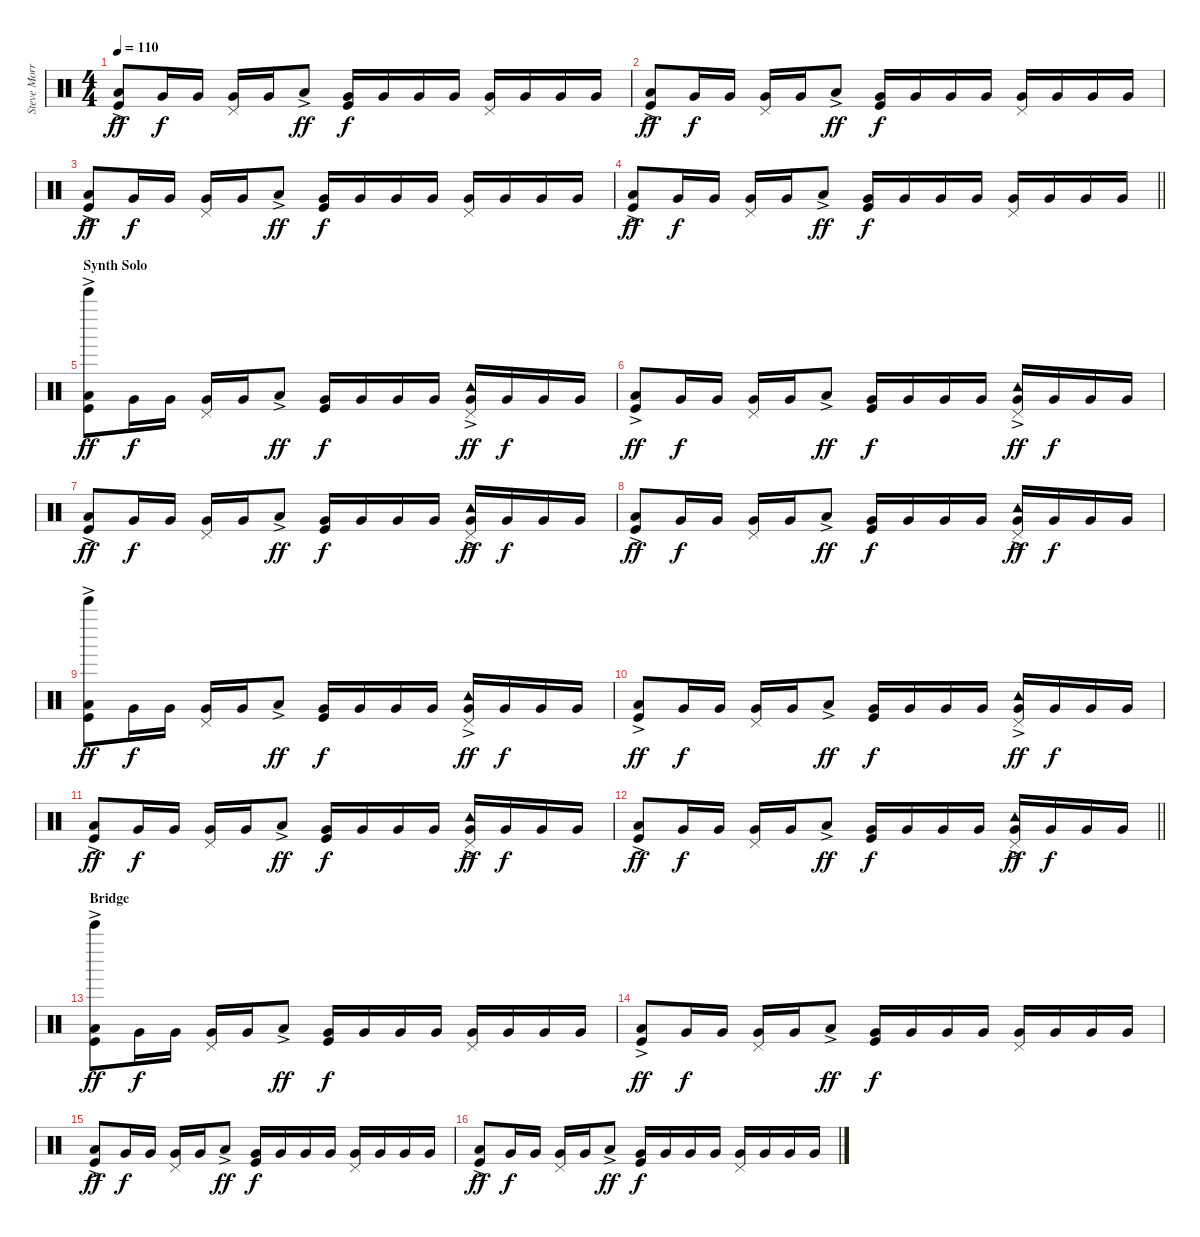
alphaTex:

\track ("Steve Morris Drums" "Steve Morr") {instrument percussion}
\staff {score}
\articulation defaults
\ts (4 4)
\tempo 110
\clef neutral
\ks c
("Low Tom (hit)"{ac} "Kick (hit)").8{dy ff} "Very Low Tom (hit)".16{dy f} "Very Low Tom (hit)".16 ("Pedal Hi-Hat (hit)" "Very Low Tom (hit)").16 "Very Low Tom (hit)".16 "Low Tom (hit)"{ac}.8{dy ff} ("Very Low Tom (hit)" "Kick (hit)").16{dy f} "Very Low Tom (hit)".16 "Very Low Tom (hit)".16 "Very Low Tom (hit)".16 ("Pedal Hi-Hat (hit)" "Very Low Tom (hit)").16 "Very Low Tom (hit)".16 "Very Low Tom (hit)".16 "Very Low Tom (hit)".16 |
("Low Tom (hit)"{ac} "Kick (hit)").8{dy ff} "Very Low Tom (hit)".16{dy f} "Very Low Tom (hit)".16 ("Pedal Hi-Hat (hit)" "Very Low Tom (hit)").16 "Very Low Tom (hit)".16 "Low Tom (hit)"{ac}.8{dy ff} ("Very Low Tom (hit)" "Kick (hit)").16{dy f} "Very Low Tom (hit)".16 "Very Low Tom (hit)".16 "Very Low Tom (hit)".16 ("Pedal Hi-Hat (hit)" "Very Low Tom (hit)").16 "Very Low Tom (hit)".16 "Very Low Tom (hit)".16 "Very Low Tom (hit)".16 |
("Low Tom (hit)"{ac} "Kick (hit)").8{dy ff} "Very Low Tom (hit)".16{dy f} "Very Low Tom (hit)".16 ("Pedal Hi-Hat (hit)" "Very Low Tom (hit)").16 "Very Low Tom (hit)".16 "Low Tom (hit)"{ac}.8{dy ff} ("Very Low Tom (hit)" "Kick (hit)").16{dy f} "Very Low Tom (hit)".16 "Very Low Tom (hit)".16 "Very Low Tom (hit)".16 ("Pedal Hi-Hat (hit)" "Very Low Tom (hit)").16 "Very Low Tom (hit)".16 "Very Low Tom (hit)".16 "Very Low Tom (hit)".16 |
\barLineRight lightlight
("Low Tom (hit)"{ac} "Kick (hit)").8{dy ff} "Very Low Tom (hit)".16{dy f} "Very Low Tom (hit)".16 ("Pedal Hi-Hat (hit)" "Very Low Tom (hit)").16 "Very Low Tom (hit)".16 "Low Tom (hit)"{ac}.8{dy ff} ("Very Low Tom (hit)" "Kick (hit)").16{dy f} "Very Low Tom (hit)".16 "Very Low Tom (hit)".16 "Very Low Tom (hit)".16 ("Pedal Hi-Hat (hit)" "Very Low Tom (hit)").16 "Very Low Tom (hit)".16 "Very Low Tom (hit)".16 "Very Low Tom (hit)".16 |
\section ("" "Synth Solo")
("Bell Tree (hit)" "Low Tom (hit)"{ac} "Kick (hit)").8{dy ff} "Very Low Tom (hit)".16{dy f} "Very Low Tom (hit)".16 ("Pedal Hi-Hat (hit)" "Very Low Tom (hit)").16 "Very Low Tom (hit)".16 "Low Tom (hit)"{ac}.8{dy ff} ("Very Low Tom (hit)" "Kick (hit)").16{dy f} "Very Low Tom (hit)".16 "Very Low Tom (hit)".16 "Very Low Tom (hit)".16 ("Pedal Hi-Hat (hit)" "Tambourine (hit)"{ac} "Very Low Tom (hit)").16{dy ff} "Very Low Tom (hit)".16{dy f} "Very Low Tom (hit)".16 "Very Low Tom (hit)".16 |
("Low Tom (hit)"{ac} "Kick (hit)").8{dy ff} "Very Low Tom (hit)".16{dy f} "Very Low Tom (hit)".16 ("Pedal Hi-Hat (hit)" "Very Low Tom (hit)").16 "Very Low Tom (hit)".16 "Low Tom (hit)"{ac}.8{dy ff} ("Very Low Tom (hit)" "Kick (hit)").16{dy f} "Very Low Tom (hit)".16 "Very Low Tom (hit)".16 "Very Low Tom (hit)".16 ("Pedal Hi-Hat (hit)" "Tambourine (hit)"{ac} "Very Low Tom (hit)").16{dy ff} "Very Low Tom (hit)".16{dy f} "Very Low Tom (hit)".16 "Very Low Tom (hit)".16 |
("Low Tom (hit)"{ac} "Kick (hit)").8{dy ff} "Very Low Tom (hit)".16{dy f} "Very Low Tom (hit)".16 ("Pedal Hi-Hat (hit)" "Very Low Tom (hit)").16 "Very Low Tom (hit)".16 "Low Tom (hit)"{ac}.8{dy ff} ("Very Low Tom (hit)" "Kick (hit)").16{dy f} "Very Low Tom (hit)".16 "Very Low Tom (hit)".16 "Very Low Tom (hit)".16 ("Pedal Hi-Hat (hit)" "Tambourine (hit)"{ac} "Very Low Tom (hit)").16{dy ff} "Very Low Tom (hit)".16{dy f} "Very Low Tom (hit)".16 "Very Low Tom (hit)".16 |
("Low Tom (hit)"{ac} "Kick (hit)").8{dy ff} "Very Low Tom (hit)".16{dy f} "Very Low Tom (hit)".16 ("Pedal Hi-Hat (hit)" "Very Low Tom (hit)").16 "Very Low Tom (hit)".16 "Low Tom (hit)"{ac}.8{dy ff} ("Very Low Tom (hit)" "Kick (hit)").16{dy f} "Very Low Tom (hit)".16 "Very Low Tom (hit)".16 "Very Low Tom (hit)".16 ("Pedal Hi-Hat (hit)" "Tambourine (hit)"{ac} "Very Low Tom (hit)").16{dy ff} "Very Low Tom (hit)".16{dy f} "Very Low Tom (hit)".16 "Very Low Tom (hit)".16 |
("Bell Tree (hit)" "Low Tom (hit)"{ac} "Kick (hit)").8{dy ff} "Very Low Tom (hit)".16{dy f} "Very Low Tom (hit)".16 ("Pedal Hi-Hat (hit)" "Very Low Tom (hit)").16 "Very Low Tom (hit)".16 "Low Tom (hit)"{ac}.8{dy ff} ("Very Low Tom (hit)" "Kick (hit)").16{dy f} "Very Low Tom (hit)".16 "Very Low Tom (hit)".16 "Very Low Tom (hit)".16 ("Pedal Hi-Hat (hit)" "Tambourine (hit)"{ac} "Very Low Tom (hit)").16{dy ff} "Very Low Tom (hit)".16{dy f} "Very Low Tom (hit)".16 "Very Low Tom (hit)".16 |
("Low Tom (hit)"{ac} "Kick (hit)").8{dy ff} "Very Low Tom (hit)".16{dy f} "Very Low Tom (hit)".16 ("Pedal Hi-Hat (hit)" "Very Low Tom (hit)").16 "Very Low Tom (hit)".16 "Low Tom (hit)"{ac}.8{dy ff} ("Very Low Tom (hit)" "Kick (hit)").16{dy f} "Very Low Tom (hit)".16 "Very Low Tom (hit)".16 "Very Low Tom (hit)".16 ("Pedal Hi-Hat (hit)" "Tambourine (hit)"{ac} "Very Low Tom (hit)").16{dy ff} "Very Low Tom (hit)".16{dy f} "Very Low Tom (hit)".16 "Very Low Tom (hit)".16 |
("Low Tom (hit)"{ac} "Kick (hit)").8{dy ff} "Very Low Tom (hit)".16{dy f} "Very Low Tom (hit)".16 ("Pedal Hi-Hat (hit)" "Very Low Tom (hit)").16 "Very Low Tom (hit)".16 "Low Tom (hit)"{ac}.8{dy ff} ("Very Low Tom (hit)" "Kick (hit)").16{dy f} "Very Low Tom (hit)".16 "Very Low Tom (hit)".16 "Very Low Tom (hit)".16 ("Pedal Hi-Hat (hit)" "Tambourine (hit)"{ac} "Very Low Tom (hit)").16{dy ff} "Very Low Tom (hit)".16{dy f} "Very Low Tom (hit)".16 "Very Low Tom (hit)".16 |
\barLineRight lightlight
("Low Tom (hit)"{ac} "Kick (hit)").8{dy ff} "Very Low Tom (hit)".16{dy f} "Very Low Tom (hit)".16 ("Pedal Hi-Hat (hit)" "Very Low Tom (hit)").16 "Very Low Tom (hit)".16 "Low Tom (hit)"{ac}.8{dy ff} ("Very Low Tom (hit)" "Kick (hit)").16{dy f} "Very Low Tom (hit)".16 "Very Low Tom (hit)".16 "Very Low Tom (hit)".16 ("Pedal Hi-Hat (hit)" "Tambourine (hit)"{ac} "Very Low Tom (hit)").16{dy ff} "Very Low Tom (hit)".16{dy f} "Very Low Tom (hit)".16 "Very Low Tom (hit)".16 |
\section ("" "Bridge")
("Bell Tree (hit)" "Low Tom (hit)"{ac} "Kick (hit)").8{dy ff} "Very Low Tom (hit)".16{dy f} "Very Low Tom (hit)".16 ("Pedal Hi-Hat (hit)" "Very Low Tom (hit)").16 "Very Low Tom (hit)".16 "Low Tom (hit)"{ac}.8{dy ff} ("Very Low Tom (hit)" "Kick (hit)").16{dy f} "Very Low Tom (hit)".16 "Very Low Tom (hit)".16 "Very Low Tom (hit)".16 ("Pedal Hi-Hat (hit)" "Very Low Tom (hit)").16 "Very Low Tom (hit)".16 "Very Low Tom (hit)".16 "Very Low Tom (hit)".16 |
("Low Tom (hit)"{ac} "Kick (hit)").8{dy ff} "Very Low Tom (hit)".16{dy f} "Very Low Tom (hit)".16 ("Pedal Hi-Hat (hit)" "Very Low Tom (hit)").16 "Very Low Tom (hit)".16 "Low Tom (hit)"{ac}.8{dy ff} ("Very Low Tom (hit)" "Kick (hit)").16{dy f} "Very Low Tom (hit)".16 "Very Low Tom (hit)".16 "Very Low Tom (hit)".16 ("Pedal Hi-Hat (hit)" "Very Low Tom (hit)").16 "Very Low Tom (hit)".16 "Very Low Tom (hit)".16 "Very Low Tom (hit)".16 |
("Low Tom (hit)"{ac} "Kick (hit)").8{dy ff} "Very Low Tom (hit)".16{dy f} "Very Low Tom (hit)".16 ("Pedal Hi-Hat (hit)" "Very Low Tom (hit)").16 "Very Low Tom (hit)".16 "Low Tom (hit)"{ac}.8{dy ff} ("Very Low Tom (hit)" "Kick (hit)").16{dy f} "Very Low Tom (hit)".16 "Very Low Tom (hit)".16 "Very Low Tom (hit)".16 ("Pedal Hi-Hat (hit)" "Very Low Tom (hit)").16 "Very Low Tom (hit)".16 "Very Low Tom (hit)".16 "Very Low Tom (hit)".16 |
("Low Tom (hit)"{ac} "Kick (hit)").8{dy ff} "Very Low Tom (hit)".16{dy f} "Very Low Tom (hit)".16 ("Pedal Hi-Hat (hit)" "Very Low Tom (hit)").16 "Very Low Tom (hit)".16 "Low Tom (hit)"{ac}.8{dy ff} ("Very Low Tom (hit)" "Kick (hit)").16{dy f} "Very Low Tom (hit)".16 "Very Low Tom (hit)".16 "Very Low Tom (hit)".16 ("Pedal Hi-Hat (hit)" "Very Low Tom (hit)").16 "Very Low Tom (hit)".16 "Very Low Tom (hit)".16 "Very Low Tom (hit)".16
